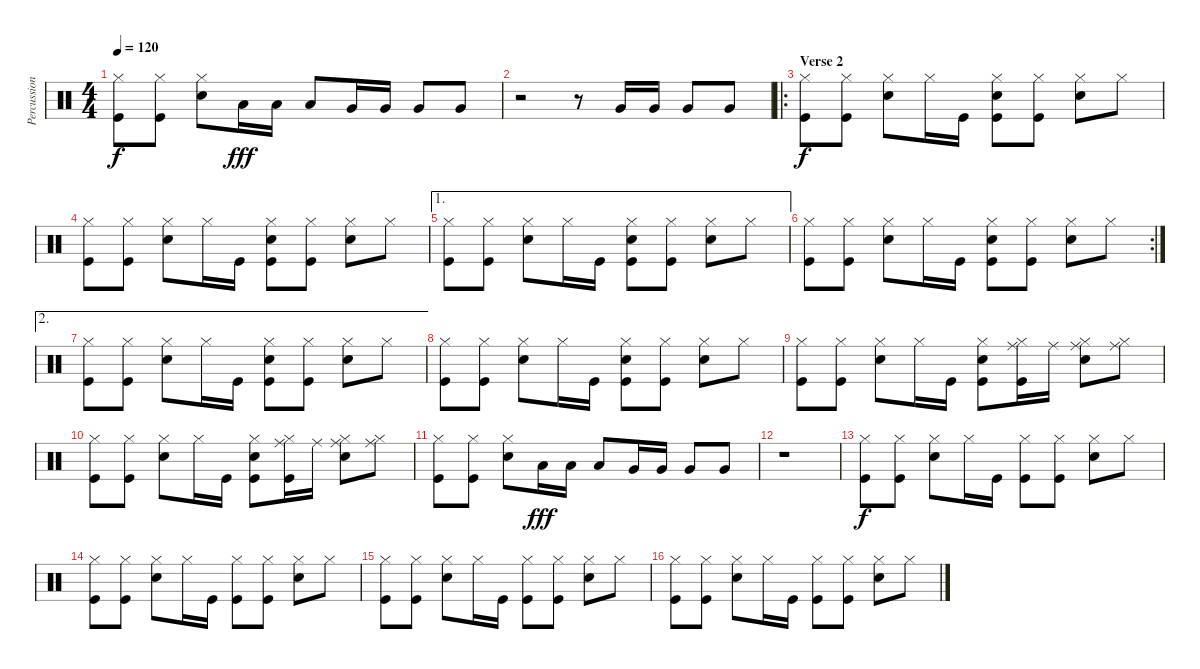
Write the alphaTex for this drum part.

\track ("Percussion" "Percussion") {instrument percussion}
\staff {score}
\articulation defaults
\ts (4 4)
\tempo 120
\clef neutral
\ks c
("Hi-Hat (closed)" "Kick (hit)").8{dy f} ("Hi-Hat (closed)" "Kick (hit)").8 ("Hi-Hat (closed)" "Snare (hit) 2").8 "Low Tom (hit)".16{dy fff} "Low Tom (hit)".16 "Low Tom (hit)".8 "Very Low Tom (hit)".16 "Very Low Tom (hit)".16 "Very Low Tom (hit)".8 "Very Low Tom (hit)".8 |
r.2 r.8 "Very Low Tom (hit)".16 "Very Low Tom (hit)".16 "Very Low Tom (hit)".8 "Very Low Tom (hit)".8 |
\ro
\section ("" "Verse 2")
("Hi-Hat (closed)" "Kick (hit)").8{dy f} ("Hi-Hat (closed)" "Kick (hit)").8 ("Hi-Hat (closed)" "Snare (hit) 2").8 "Hi-Hat (closed)".16 "Kick (hit)".16 ("Hi-Hat (closed)" "Hand Clap (hit)" "Kick (hit)").8 ("Hi-Hat (closed)" "Kick (hit)").8 ("Hi-Hat (closed)" "Snare (hit) 2").8 "Hi-Hat (closed)".8 |
("Hi-Hat (closed)" "Kick (hit)").8 ("Hi-Hat (closed)" "Kick (hit)").8 ("Hi-Hat (closed)" "Snare (hit) 2").8 "Hi-Hat (closed)".16 "Kick (hit)".16 ("Hi-Hat (closed)" "Hand Clap (hit)" "Kick (hit)").8 ("Hi-Hat (closed)" "Kick (hit)").8 ("Hi-Hat (closed)" "Snare (hit) 2").8 "Hi-Hat (closed)".8 |
\ae 1
("Hi-Hat (closed)" "Kick (hit)").8 ("Hi-Hat (closed)" "Kick (hit)").8 ("Hi-Hat (closed)" "Snare (hit) 2").8 "Hi-Hat (closed)".16 "Kick (hit)".16 ("Hi-Hat (closed)" "Hand Clap (hit)" "Kick (hit)").8 ("Hi-Hat (closed)" "Kick (hit)").8 ("Hi-Hat (closed)" "Snare (hit) 2").8 "Hi-Hat (closed)".8 |
\rc 2
("Hi-Hat (closed)" "Kick (hit)").8 ("Hi-Hat (closed)" "Kick (hit)").8 ("Hi-Hat (closed)" "Snare (hit) 2").8 "Hi-Hat (closed)".16 "Kick (hit)".16 ("Hi-Hat (closed)" "Hand Clap (hit)" "Kick (hit)").8 ("Hi-Hat (closed)" "Kick (hit)").8 ("Hi-Hat (closed)" "Snare (hit) 2").8 "Hi-Hat (closed)".8 |
\ae 2
("Hi-Hat (closed)" "Kick (hit)").8 ("Hi-Hat (closed)" "Kick (hit)").8 ("Hi-Hat (closed)" "Snare (hit) 2").8 "Hi-Hat (closed)".16 "Kick (hit)".16 ("Hi-Hat (closed)" "Hand Clap (hit)" "Kick (hit)").8 ("Hi-Hat (closed)" "Kick (hit)").8 ("Hi-Hat (closed)" "Snare (hit) 2").8 "Hi-Hat (closed)".8 |
("Hi-Hat (closed)" "Kick (hit)").8 ("Hi-Hat (closed)" "Kick (hit)").8 ("Hi-Hat (closed)" "Snare (hit) 2").8 "Hi-Hat (closed)".16 "Kick (hit)".16 ("Hi-Hat (closed)" "Hand Clap (hit)" "Kick (hit)").8 ("Hi-Hat (closed)" "Kick (hit)").8 ("Hi-Hat (closed)" "Snare (hit) 2").8 "Hi-Hat (closed)".8 |
("Hi-Hat (closed)" "Kick (hit)").8 ("Hi-Hat (closed)" "Kick (hit)").8 ("Hi-Hat (closed)" "Snare (hit) 2").8 "Hi-Hat (closed)".16 "Kick (hit)".16 ("Hi-Hat (closed)" "Hand Clap (hit)" "Kick (hit)").8 ("Hi-Hat (closed)" "Ride (middle)" "Kick (hit)").16 "Ride (middle)".16 ("Hi-Hat (closed)" "Ride (middle)" "Snare (hit) 2").8 ("Hi-Hat (closed)" "Ride (middle)").8 |
("Hi-Hat (closed)" "Kick (hit)").8 ("Hi-Hat (closed)" "Kick (hit)").8 ("Hi-Hat (closed)" "Snare (hit) 2").8 "Hi-Hat (closed)".16 "Kick (hit)".16 ("Hi-Hat (closed)" "Hand Clap (hit)" "Kick (hit)").8 ("Hi-Hat (closed)" "Ride (middle)" "Kick (hit)").16 "Ride (middle)".16 ("Hi-Hat (closed)" "Ride (middle)" "Snare (hit) 2").8 ("Hi-Hat (closed)" "Ride (middle)").8 |
("Hi-Hat (closed)" "Kick (hit)").8 ("Hi-Hat (closed)" "Kick (hit)").8 ("Hi-Hat (closed)" "Snare (hit) 2").8 "Low Tom (hit)".16{dy fff} "Low Tom (hit)".16 "Low Tom (hit)".8 "Very Low Tom (hit)".16 "Very Low Tom (hit)".16 "Very Low Tom (hit)".8 "Very Low Tom (hit)".8 |
r.1 |
("Hi-Hat (closed)" "Kick (hit)").8{dy f} ("Hi-Hat (closed)" "Kick (hit)").8 ("Hi-Hat (closed)" "Snare (hit) 2").8 "Hi-Hat (closed)".16 "Kick (hit)".16 ("Hi-Hat (closed)" "Kick (hit)").8 ("Hi-Hat (closed)" "Kick (hit)").8 ("Hi-Hat (closed)" "Snare (hit) 2").8 "Hi-Hat (closed)".8 |
("Hi-Hat (closed)" "Kick (hit)").8 ("Hi-Hat (closed)" "Kick (hit)").8 ("Hi-Hat (closed)" "Snare (hit) 2").8 "Hi-Hat (closed)".16 "Kick (hit)".16 ("Hi-Hat (closed)" "Kick (hit)").8 ("Hi-Hat (closed)" "Kick (hit)").8 ("Hi-Hat (closed)" "Snare (hit) 2").8 "Hi-Hat (closed)".8 |
("Hi-Hat (closed)" "Kick (hit)").8 ("Hi-Hat (closed)" "Kick (hit)").8 ("Hi-Hat (closed)" "Snare (hit) 2").8 "Hi-Hat (closed)".16 "Kick (hit)".16 ("Hi-Hat (closed)" "Kick (hit)").8 ("Hi-Hat (closed)" "Kick (hit)").8 ("Hi-Hat (closed)" "Snare (hit) 2").8 "Hi-Hat (closed)".8 |
("Hi-Hat (closed)" "Kick (hit)").8 ("Hi-Hat (closed)" "Kick (hit)").8 ("Hi-Hat (closed)" "Snare (hit) 2").8 "Hi-Hat (closed)".16 "Kick (hit)".16 ("Hi-Hat (closed)" "Kick (hit)").8 ("Hi-Hat (closed)" "Kick (hit)").8 ("Hi-Hat (closed)" "Snare (hit) 2").8 "Hi-Hat (closed)".8
